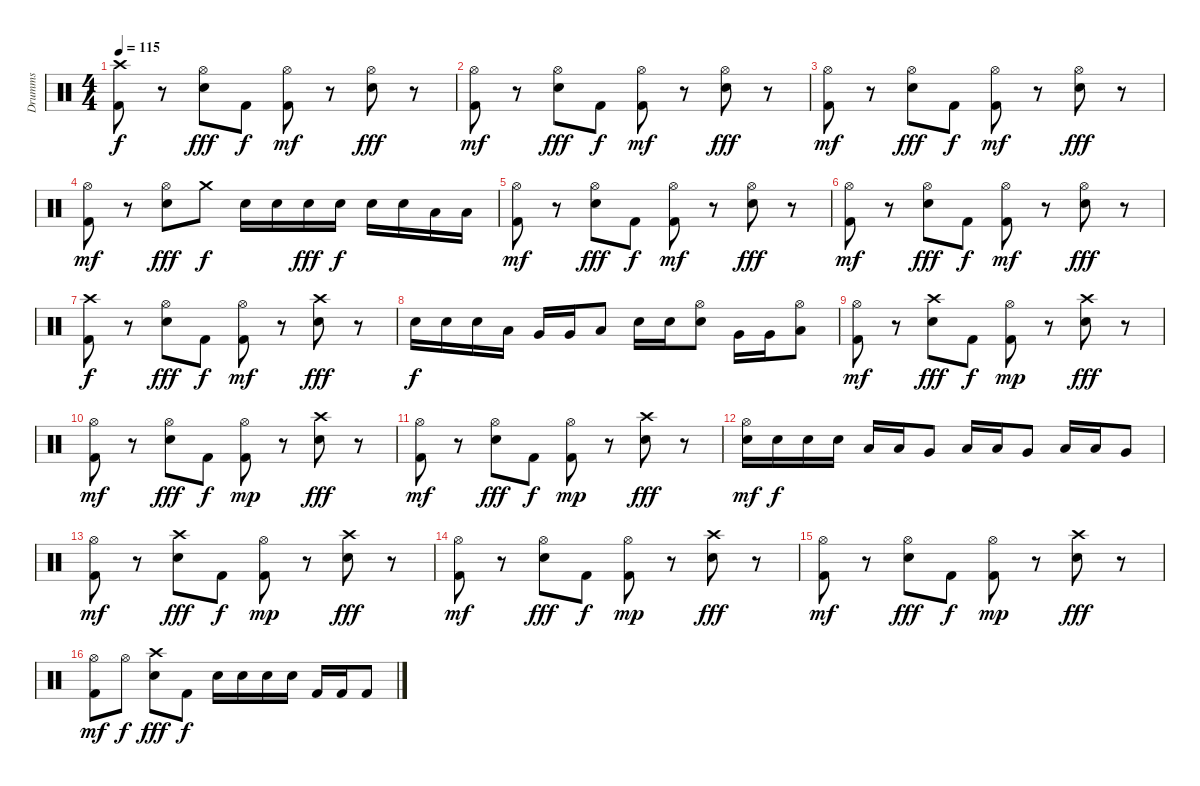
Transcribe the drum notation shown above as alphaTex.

\track ("Drumms" "Drumms") {instrument percussion}
\staff {score}
\articulation defaults
\ts (4 4)
\section ("" "")
\tempo 115
\clef neutral
\ks c
("Crash high (hit)" "Kick (hit) 2").8{dy f} r.8 ("Hi-Hat (open)" "Snare (hit) 2").8{dy fff} "Kick (hit) 2".8{dy f} ("Hi-Hat (open)" "Kick (hit) 2").8{dy mf} r.8 ("Hi-Hat (open)" "Snare (hit) 2").8{dy fff} r.8 |
("Hi-Hat (open)" "Kick (hit) 2").8{dy mf} r.8 ("Hi-Hat (open)" "Snare (hit) 2").8{dy fff} "Kick (hit) 2".8{dy f} ("Hi-Hat (open)" "Kick (hit) 2").8{dy mf} r.8 ("Hi-Hat (open)" "Snare (hit) 2").8{dy fff} r.8 |
("Hi-Hat (open)" "Kick (hit) 2").8{dy mf} r.8 ("Hi-Hat (open)" "Snare (hit) 2").8{dy fff} "Kick (hit) 2".8{dy f} ("Hi-Hat (open)" "Kick (hit) 2").8{dy mf} r.8 ("Hi-Hat (open)" "Snare (hit) 2").8{dy fff} r.8 |
("Hi-Hat (open)" "Kick (hit) 2").8{dy mf} r.8 ("Hi-Hat (open)" "Snare (hit) 2").8{dy fff} "Crash medium (hit)".8{dy f} "Electric Snare (hit)".16 "Electric Snare (hit)".16 "Electric Snare (hit)".16{dy fff} "Electric Snare (hit)".16{dy f} "Electric Snare (hit)".16 "Electric Snare (hit)".16 "Low Tom (hit)".16 "Low Tom (hit)".16 |
("Hi-Hat (open)" "Kick (hit) 2").8{dy mf} r.8 ("Hi-Hat (open)" "Snare (hit) 2").8{dy fff} "Kick (hit) 2".8{dy f} ("Hi-Hat (open)" "Kick (hit) 2").8{dy mf} r.8 ("Hi-Hat (open)" "Snare (hit) 2").8{dy fff} r.8 |
("Hi-Hat (open)" "Kick (hit) 2").8{dy mf} r.8 ("Hi-Hat (open)" "Snare (hit) 2").8{dy fff} "Kick (hit) 2".8{dy f} ("Hi-Hat (open)" "Kick (hit) 2").8{dy mf} r.8 ("Hi-Hat (open)" "Snare (hit) 2").8{dy fff} r.8 |
("Crash high (hit)" "Kick (hit) 2").8{dy f} r.8 ("Hi-Hat (open)" "Snare (hit) 2").8{dy fff} "Kick (hit) 2".8{dy f} ("Hi-Hat (open)" "Kick (hit) 2").8{dy mf} r.8 ("Crash high (hit)" "Snare (hit) 2").8{dy fff} r.8 |
"Electric Snare (hit)".16{dy f} "Electric Snare (hit)".16 "Electric Snare (hit)".16 "Low Tom (hit)".16 "Very Low Tom (hit)".16 "Very Low Tom (hit)".16 "Low Tom (hit)".8 "Electric Snare (hit)".16 "Electric Snare (hit)".16 ("Hi-Hat (open)" "Electric Snare (hit)").8 "Very Low Tom (hit)".16 "Very Low Tom (hit)".16 ("Hi-Hat (open)" "Low Tom (hit)").8 |
("Hi-Hat (open)" "Kick (hit) 2").8{dy mf} r.8 ("Crash high (hit)" "Snare (hit) 2").8{dy fff} "Kick (hit) 2".8{dy f} ("Hi-Hat (open)" "Kick (hit) 2").8{dy mp} r.8 ("Crash high (hit)" "Snare (hit) 2").8{dy fff} r.8 |
("Hi-Hat (open)" "Kick (hit) 2").8{dy mf} r.8 ("Hi-Hat (open)" "Snare (hit) 2").8{dy fff} "Kick (hit) 2".8{dy f} ("Hi-Hat (open)" "Kick (hit) 2").8{dy mp} r.8 ("Crash high (hit)" "Snare (hit) 2").8{dy fff} r.8 |
("Hi-Hat (open)" "Kick (hit) 2").8{dy mf} r.8 ("Hi-Hat (open)" "Snare (hit) 2").8{dy fff} "Kick (hit) 2".8{dy f} ("Hi-Hat (open)" "Kick (hit) 2").8{dy mp} r.8 ("Crash high (hit)" "Snare (hit) 2").8{dy fff} r.8 |
("Hi-Hat (open)" "Electric Snare (hit)").16{dy mf} "Electric Snare (hit)".16{dy f} "Electric Snare (hit)".16 "Electric Snare (hit)".16 "Low Tom (hit)".16 "Low Tom (hit)".16 "Very Low Tom (hit)".8 "Low Tom (hit)".16 "Low Tom (hit)".16 "Very Low Tom (hit)".8 "Low Tom (hit)".16 "Low Tom (hit)".16 "Very Low Tom (hit)".8 |
("Hi-Hat (open)" "Kick (hit) 2").8{dy mf} r.8 ("Crash high (hit)" "Snare (hit) 2").8{dy fff} "Kick (hit) 2".8{dy f} ("Hi-Hat (open)" "Kick (hit) 2").8{dy mp} r.8 ("Crash high (hit)" "Snare (hit) 2").8{dy fff} r.8 |
("Hi-Hat (open)" "Kick (hit) 2").8{dy mf} r.8 ("Hi-Hat (open)" "Snare (hit) 2").8{dy fff} "Kick (hit) 2".8{dy f} ("Hi-Hat (open)" "Kick (hit) 2").8{dy mp} r.8 ("Crash high (hit)" "Snare (hit) 2").8{dy fff} r.8 |
("Hi-Hat (open)" "Kick (hit) 2").8{dy mf} r.8 ("Hi-Hat (open)" "Snare (hit) 2").8{dy fff} "Kick (hit) 2".8{dy f} ("Hi-Hat (open)" "Kick (hit) 2").8{dy mp} r.8 ("Crash high (hit)" "Snare (hit) 2").8{dy fff} r.8 |
("Hi-Hat (open)" "Kick (hit) 2").8{dy mf} "Hi-Hat (open)".8{dy f} ("Crash high (hit)" "Snare (hit) 2").8{dy fff} "Kick (hit) 2".8{dy f} "Electric Snare (hit)".16 "Electric Snare (hit)".16 "Electric Snare (hit)".16 "Electric Snare (hit)".16 "Kick (hit) 2".16 "Kick (hit) 2".16 "Kick (hit) 2".8
